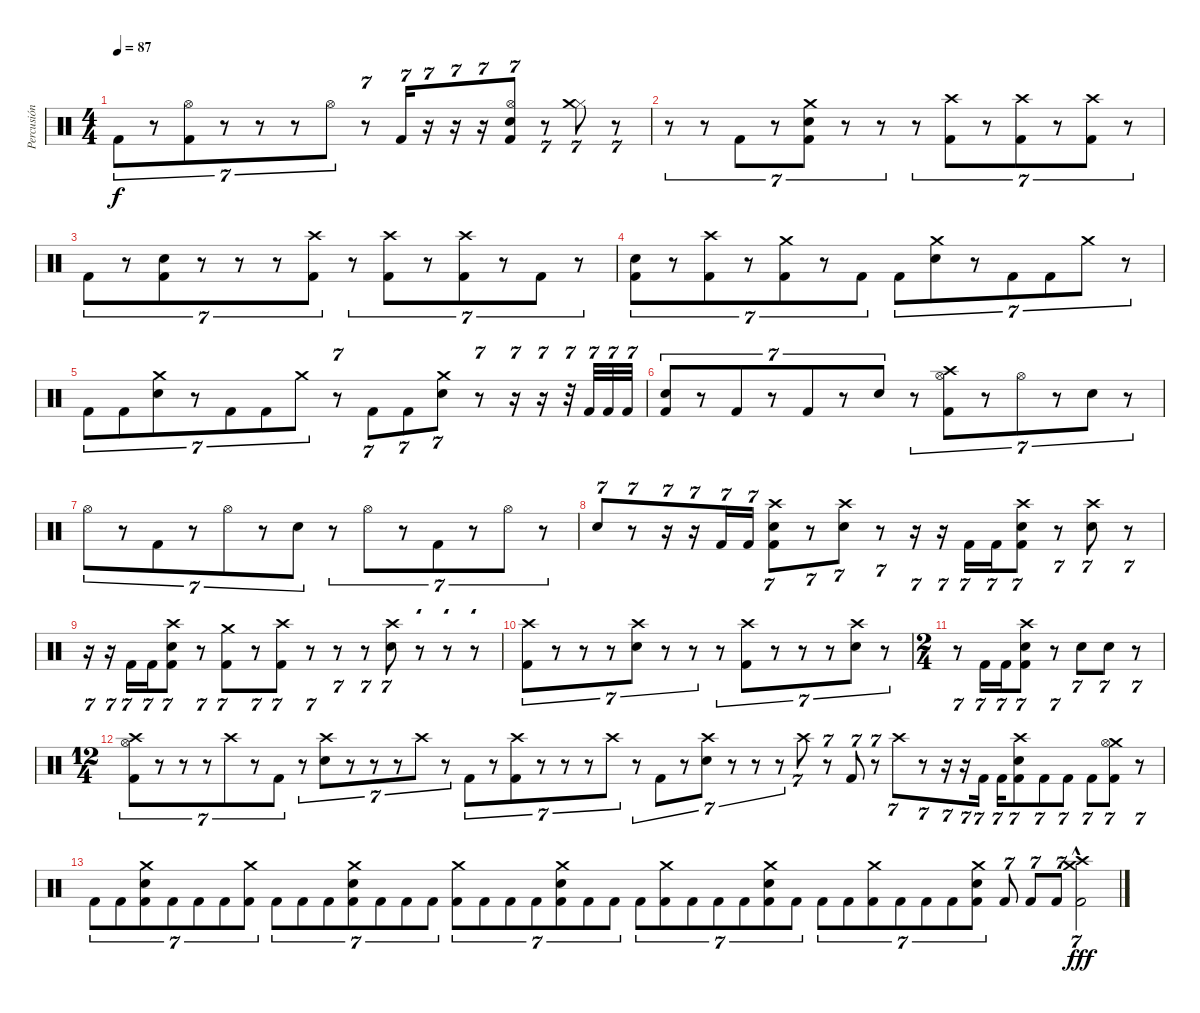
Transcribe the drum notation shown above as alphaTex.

\track ("Percusión" "Percusión") {instrument percussion}
\staff {score}
\articulation defaults
\ts (4 4)
\tempo 87
\clef neutral
\ks c "Kick (hit) 2".8{tu (7 4) dy f}
r.8{tu (7 4)} ("Hi-Hat (open)" "Kick (hit) 2").8{tu (7 4)} r.8{tu (7 4)} r.8{tu (7 4)} r.8{tu (7 4)} "Hi-Hat (open)".8{tu (7 4)} r.8{tu (7 4)} "Kick (hit) 2".16{tu (7 4)} r.16{tu (7 4)} r.16{tu (7 4)} r.16{tu (7 4)} ("Hi-Hat (open)" "Electric Snare (hit)" "Kick (hit) 2").8{tu (7 4)} r.8{tu (7 4)} ("Hi-Hat (closed)" "Crash medium (hit)").8{tu (7 4)} r.8{tu (7 4)} |
r.8{tu (7 4)} r.8{tu (7 4)} "Kick (hit) 2".8{tu (7 4)} r.8{tu (7 4)} ("Crash medium (hit)" "Electric Snare (hit)" "Kick (hit) 2").8{tu (7 4)} r.8{tu (7 4)} r.8{tu (7 4)} r.8{tu (7 4)} ("Crash high (hit)" "Kick (hit) 2").8{tu (7 4)} r.8{tu (7 4)} ("Crash high (hit)" "Kick (hit) 2").8{tu (7 4)} r.8{tu (7 4)} ("Crash high (hit)" "Kick (hit) 2").8{tu (7 4)} r.8{tu (7 4)} |
"Kick (hit) 2".8{tu (7 4)} r.8{tu (7 4)} ("Electric Snare (hit)" "Kick (hit) 2").8{tu (7 4)} r.8{tu (7 4)} r.8{tu (7 4)} r.8{tu (7 4)} ("Crash high (hit)" "Kick (hit) 2").8{tu (7 4)} r.8{tu (7 4)} ("Crash high (hit)" "Kick (hit) 2").8{tu (7 4)} r.8{tu (7 4)} ("Crash high (hit)" "Kick (hit) 2").8{tu (7 4)} r.8{tu (7 4)} "Kick (hit) 2".8{tu (7 4)} r.8{tu (7 4)} |
("Electric Snare (hit)" "Kick (hit) 2").8{tu (7 4)} r.8{tu (7 4)} ("Crash high (hit)" "Kick (hit) 2").8{tu (7 4)} r.8{tu (7 4)} ("Crash medium (hit)" "Kick (hit) 2").8{tu (7 4)} r.8{tu (7 4)} "Kick (hit) 2".8{tu (7 4)} "Kick (hit) 2".8{tu (7 4)} ("Crash medium (hit)" "Electric Snare (hit)").8{tu (7 4)} r.8{tu (7 4)} "Kick (hit) 2".8{tu (7 4)} "Kick (hit) 2".8{tu (7 4)} "Crash medium (hit)".8{tu (7 4)} r.8{tu (7 4)} |
"Kick (hit) 2".8{tu (7 4)} "Kick (hit) 2".8{tu (7 4)} ("Crash medium (hit)" "Electric Snare (hit)").8{tu (7 4)} r.8{tu (7 4)} "Kick (hit) 2".8{tu (7 4)} "Kick (hit) 2".8{tu (7 4)} "Crash medium (hit)".8{tu (7 4)} r.8{tu (7 4)} "Kick (hit) 2".8{tu (7 4)} "Kick (hit) 2".8{tu (7 4)} ("Crash medium (hit)" "Electric Snare (hit)").8{tu (7 4)} r.8{tu (7 4)} r.16{tu (7 4)} r.16{tu (7 4)} r.32{tu (7 4)} "Kick (hit) 2".32{tu (7 4)} "Kick (hit) 2".32{tu (7 4)} "Kick (hit) 2".32{tu (7 4)} |
("Electric Snare (hit)" "Kick (hit) 2").8{tu (7 4)} r.8{tu (7 4)} "Kick (hit) 2".8{tu (7 4)} r.8{tu (7 4)} "Kick (hit) 2".8{tu (7 4)} r.8{tu (7 4)} "Electric Snare (hit)".8{tu (7 4)} r.8{tu (7 4)} ("Crash high (hit)" "Hi-Hat (open)" "Kick (hit) 2").8{tu (7 4)} r.8{tu (7 4)} "Hi-Hat (open)".8{tu (7 4)} r.8{tu (7 4)} "Electric Snare (hit)".8{tu (7 4)} r.8{tu (7 4)} |
"Hi-Hat (open)".8{tu (7 4)} r.8{tu (7 4)} "Kick (hit) 2".8{tu (7 4)} r.8{tu (7 4)} "Hi-Hat (open)".8{tu (7 4)} r.8{tu (7 4)} "Electric Snare (hit)".8{tu (7 4)} r.8{tu (7 4)} "Hi-Hat (open)".8{tu (7 4)} r.8{tu (7 4)} "Kick (hit) 2".8{tu (7 4)} r.8{tu (7 4)} "Hi-Hat (open)".8{tu (7 4)} r.8{tu (7 4)} |
"Electric Snare (hit)".8{tu (7 4)} r.8{tu (7 4)} r.16{tu (7 4)} r.16{tu (7 4)} "Kick (hit) 2".16{tu (7 4)} "Kick (hit) 2".16{tu (7 4)} ("Crash high (hit)" "Electric Snare (hit)" "Kick (hit) 2").8{tu (7 4)} r.8{tu (7 4)} ("Crash high (hit)" "Electric Snare (hit)").8{tu (7 4)} r.8{tu (7 4)} r.16{tu (7 4)} r.16{tu (7 4)} "Kick (hit) 2".16{tu (7 4)} "Kick (hit) 2".16{tu (7 4)} ("Crash high (hit)" "Electric Snare (hit)" "Kick (hit) 2").8{tu (7 4)} r.8{tu (7 4)} ("Crash high (hit)" "Electric Snare (hit)").8{tu (7 4)} r.8{tu (7 4)} |
r.16{tu (7 4)} r.16{tu (7 4)} "Kick (hit) 2".16{tu (7 4)} "Kick (hit) 2".16{tu (7 4)} ("Crash high (hit)" "Electric Snare (hit)" "Kick (hit) 2").8{tu (7 4)} r.8{tu (7 4)} ("Crash medium (hit)" "Kick (hit) 2").8{tu (7 4)} r.8{tu (7 4)} ("Crash high (hit)" "Kick (hit) 2").8{tu (7 4)} r.8{tu (7 4)} r.8{tu (7 4)} r.8{tu (7 4)} ("Crash high (hit)" "Electric Snare (hit)").8{tu (7 4)} r.8{tu (7 4)} r.8{tu (7 4)} r.8{tu (7 4)} |
("Crash high (hit)" "Kick (hit) 2").8{tu (7 4)} r.8{tu (7 4)} r.8{tu (7 4)} r.8{tu (7 4)} ("Crash high (hit)" "Electric Snare (hit)").8{tu (7 4)} r.8{tu (7 4)} r.8{tu (7 4)} r.8{tu (7 4)} ("Crash high (hit)" "Kick (hit) 2").8{tu (7 4)} r.8{tu (7 4)} r.8{tu (7 4)} r.8{tu (7 4)} ("Crash high (hit)" "Electric Snare (hit)").8{tu (7 4)} r.8{tu (7 4)} |
\ts (2 4)
r.8{tu (7 4)} "Kick (hit) 2".16{tu (7 4)} "Kick (hit) 2".16{tu (7 4)} ("Crash high (hit)" "Electric Snare (hit)" "Kick (hit) 2").8{tu (7 4)} r.8{tu (7 4)} "Electric Snare (hit)".8{tu (7 4)} "Electric Snare (hit)".8{tu (7 4)} r.8{tu (7 4)} |
\ts (12 4)
("Crash high (hit)" "Hi-Hat (open)" "Kick (hit) 2").8{tu (7 4)} r.8{tu (7 4)} r.8{tu (7 4)} r.8{tu (7 4)} "Crash high (hit)".8{tu (7 4)} r.8{tu (7 4)} "Kick (hit) 2".8{tu (7 4)} r.8{tu (7 4)} ("Crash high (hit)" "Electric Snare (hit)").8{tu (7 4)} r.8{tu (7 4)} r.8{tu (7 4)} r.8{tu (7 4)} "Crash high (hit)".8{tu (7 4)} r.8{tu (7 4)} "Kick (hit) 2".8{tu (7 4)} r.8{tu (7 4)} ("Crash high (hit)" "Kick (hit) 2").8{tu (7 4)} r.8{tu (7 4)} r.8{tu (7 4)} r.8{tu (7 4)} "Crash high (hit)".8{tu (7 4)} r.8{tu (7 4)} "Kick (hit) 2".8{tu (7 4)} r.8{tu (7 4)} ("Crash high (hit)" "Electric Snare (hit)").8{tu (7 4)} r.8{tu (7 4)} r.8{tu (7 4)} r.8{tu (7 4)} "Crash high (hit)".8{tu (7 4)} r.8{tu (7 4)} "Kick (hit) 2".8{tu (7 4)} r.8{tu (7 4)} "Crash high (hit)".8{tu (7 4)} r.8{tu (7 4)} r.16{tu (7 4)} r.16{tu (7 4)} "Kick (hit) 2".16{tu (7 4)} "Kick (hit) 2".16{tu (7 4)} ("Crash high (hit)" "Electric Snare (hit)" "Kick (hit) 2").8{tu (7 4)} "Kick (hit) 2".8{tu (7 4)} "Kick (hit) 2".8{tu (7 4)} "Kick (hit) 2".8{tu (7 4)} ("Crash medium (hit)" "Hi-Hat (open)" "Kick (hit) 2").8{tu (7 4)} r.8{tu (7 4)} |
"Kick (hit) 2".8{tu (7 4)} "Kick (hit) 2".8{tu (7 4)} ("Crash medium (hit)" "Electric Snare (hit)" "Kick (hit) 2").8{tu (7 4)} "Kick (hit) 2".8{tu (7 4)} "Kick (hit) 2".8{tu (7 4)} "Kick (hit) 2".8{tu (7 4)} ("Crash medium (hit)" "Kick (hit) 2").8{tu (7 4)} "Kick (hit) 2".8{tu (7 4)} "Kick (hit) 2".8{tu (7 4)} "Kick (hit) 2".8{tu (7 4)} ("Crash medium (hit)" "Electric Snare (hit)" "Kick (hit) 2").8{tu (7 4)} "Kick (hit) 2".8{tu (7 4)} "Kick (hit) 2".8{tu (7 4)} "Kick (hit) 2".8{tu (7 4)} ("Crash medium (hit)" "Kick (hit) 2").8{tu (7 4)} "Kick (hit) 2".8{tu (7 4)} "Kick (hit) 2".8{tu (7 4)} "Kick (hit) 2".8{tu (7 4)} ("Crash medium (hit)" "Electric Snare (hit)" "Kick (hit) 2").8{tu (7 4)} "Kick (hit) 2".8{tu (7 4)} "Kick (hit) 2".8{tu (7 4)} "Kick (hit) 2".8{tu (7 4)} ("Crash medium (hit)" "Kick (hit) 2").8{tu (7 4)} "Kick (hit) 2".8{tu (7 4)} "Kick (hit) 2".8{tu (7 4)} "Kick (hit) 2".8{tu (7 4)} ("Crash medium (hit)" "Electric Snare (hit)" "Kick (hit) 2").8{tu (7 4)} "Kick (hit) 2".8{tu (7 4)} "Kick (hit) 2".8{tu (7 4)} "Kick (hit) 2".8{tu (7 4)} ("Crash medium (hit)" "Kick (hit) 2").8{tu (7 4)} "Kick (hit) 2".8{tu (7 4)} "Kick (hit) 2".8{tu (7 4)} "Kick (hit) 2".8{tu (7 4)} ("Crash medium (hit)" "Electric Snare (hit)" "Kick (hit) 2").8{tu (7 4)} "Kick (hit) 2".8{tu (7 4)} "Kick (hit) 2".8{tu (7 4)} "Kick (hit) 2".8{tu (7 4)} ("Crash medium (hit)"{hac} "Crash high (hit)"{hac} "Kick (hit) 2"{hac}).2{tu (7 4) dy fff}
